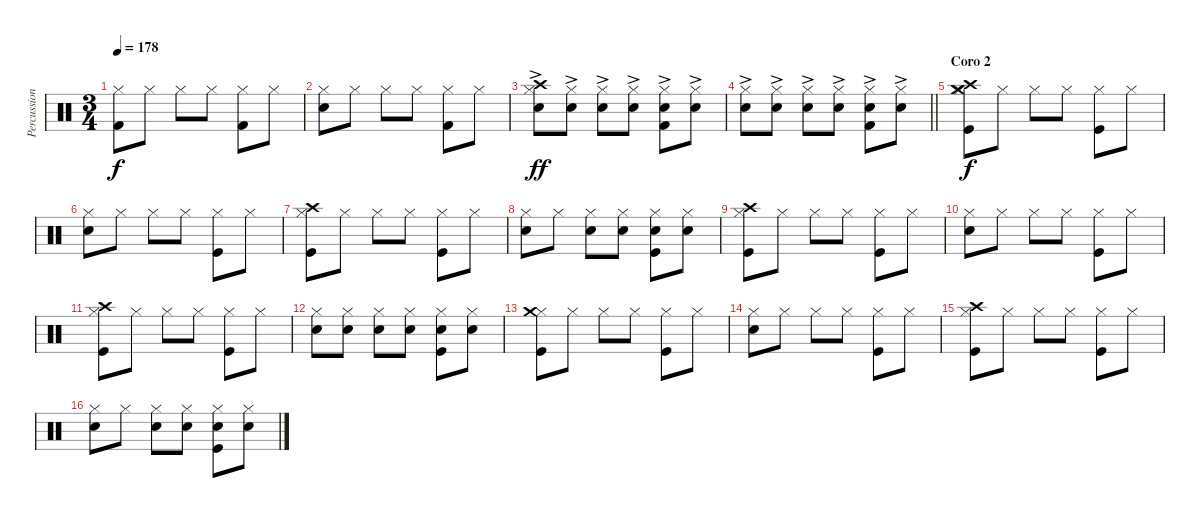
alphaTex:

\track ("Percussion" "Percussion") {instrument percussion}
\staff {score}
\articulation defaults
\ts (3 4)
\tempo 178
\clef neutral
\ks c
("Hi-Hat (closed)" "Kick (hit) 2").8{dy f} "Hi-Hat (closed)".8 "Hi-Hat (closed)".8 "Hi-Hat (closed)".8 ("Hi-Hat (closed)" "Kick (hit) 2").8 "Hi-Hat (closed)".8 |
("Hi-Hat (closed)" "Snare (hit) 2").8 "Hi-Hat (closed)".8 "Hi-Hat (closed)".8 "Hi-Hat (closed)".8 ("Hi-Hat (closed)" "Kick (hit) 2").8 "Hi-Hat (closed)".8 |
("Hi-Hat (closed)" "Snare (hit) 2"{ac} "Crash high (hit)").8{dy ff} ("Hi-Hat (closed)" "Snare (hit) 2"{ac}).8 ("Hi-Hat (closed)" "Snare (hit) 2"{ac}).8 ("Hi-Hat (closed)" "Snare (hit) 2"{ac}).8 ("Hi-Hat (closed)" "Snare (hit) 2"{ac} "Kick (hit) 2").8 ("Hi-Hat (closed)" "Snare (hit) 2"{ac}).8 |
\barLineRight lightlight
("Hi-Hat (closed)" "Snare (hit) 2"{ac}).8 ("Hi-Hat (closed)" "Snare (hit) 2"{ac}).8 ("Hi-Hat (closed)" "Snare (hit) 2"{ac}).8 ("Hi-Hat (closed)" "Snare (hit) 2"{ac}).8 ("Hi-Hat (closed)" "Snare (hit) 2"{ac} "Kick (hit) 2").8 ("Hi-Hat (closed)" "Snare (hit) 2"{ac}).8 |
\section ("" "Coro 2")
("Hi-Hat (closed)" "Crash medium (hit)" "Crash high (hit)" "Kick (hit)").8{dy f} "Hi-Hat (closed)".8 "Hi-Hat (closed)".8 "Hi-Hat (closed)".8 ("Hi-Hat (closed)" "Kick (hit)").8 "Hi-Hat (closed)".8 |
("Hi-Hat (closed)" "Snare (hit) 2").8 "Hi-Hat (closed)".8 "Hi-Hat (closed)".8 "Hi-Hat (closed)".8 ("Hi-Hat (closed)" "Kick (hit)").8 "Hi-Hat (closed)".8 |
("Hi-Hat (closed)" "Crash high (hit)" "Kick (hit)").8 "Hi-Hat (closed)".8 "Hi-Hat (closed)".8 "Hi-Hat (closed)".8 ("Hi-Hat (closed)" "Kick (hit)").8 "Hi-Hat (closed)".8 |
("Hi-Hat (closed)" "Snare (hit) 2").8 "Hi-Hat (closed)".8 ("Hi-Hat (closed)" "Snare (hit) 2").8 ("Hi-Hat (closed)" "Snare (hit) 2").8 ("Hi-Hat (closed)" "Snare (hit) 2" "Kick (hit)").8 ("Hi-Hat (closed)" "Snare (hit) 2").8 |
("Hi-Hat (closed)" "Crash high (hit)" "Kick (hit)").8 "Hi-Hat (closed)".8 "Hi-Hat (closed)".8 "Hi-Hat (closed)".8 ("Hi-Hat (closed)" "Kick (hit)").8 "Hi-Hat (closed)".8 |
("Hi-Hat (closed)" "Snare (hit) 2").8 "Hi-Hat (closed)".8 "Hi-Hat (closed)".8 "Hi-Hat (closed)".8 ("Hi-Hat (closed)" "Kick (hit)").8 "Hi-Hat (closed)".8 |
("Hi-Hat (closed)" "Crash high (hit)" "Kick (hit)").8 "Hi-Hat (closed)".8 "Hi-Hat (closed)".8 "Hi-Hat (closed)".8 ("Hi-Hat (closed)" "Kick (hit)").8 "Hi-Hat (closed)".8 |
("Hi-Hat (closed)" "Snare (hit) 2").8 ("Hi-Hat (closed)" "Snare (hit) 2").8 ("Hi-Hat (closed)" "Snare (hit) 2").8 ("Hi-Hat (closed)" "Snare (hit) 2").8 ("Hi-Hat (closed)" "Snare (hit) 2" "Kick (hit)").8 ("Hi-Hat (closed)" "Snare (hit) 2").8 |
("Hi-Hat (closed)" "Crash medium (hit)" "Kick (hit)").8 "Hi-Hat (closed)".8 "Hi-Hat (closed)".8 "Hi-Hat (closed)".8 ("Hi-Hat (closed)" "Kick (hit)").8 "Hi-Hat (closed)".8 |
("Hi-Hat (closed)" "Snare (hit) 2").8 "Hi-Hat (closed)".8 "Hi-Hat (closed)".8 "Hi-Hat (closed)".8 ("Hi-Hat (closed)" "Kick (hit)").8 "Hi-Hat (closed)".8 |
("Hi-Hat (closed)" "Crash high (hit)" "Kick (hit)").8 "Hi-Hat (closed)".8 "Hi-Hat (closed)".8 "Hi-Hat (closed)".8 ("Hi-Hat (closed)" "Kick (hit)").8 "Hi-Hat (closed)".8 |
("Hi-Hat (closed)" "Snare (hit) 2").8 "Hi-Hat (closed)".8 ("Hi-Hat (closed)" "Snare (hit) 2").8 ("Hi-Hat (closed)" "Snare (hit) 2").8 ("Hi-Hat (closed)" "Snare (hit) 2" "Kick (hit)").8 ("Hi-Hat (closed)" "Snare (hit) 2").8
